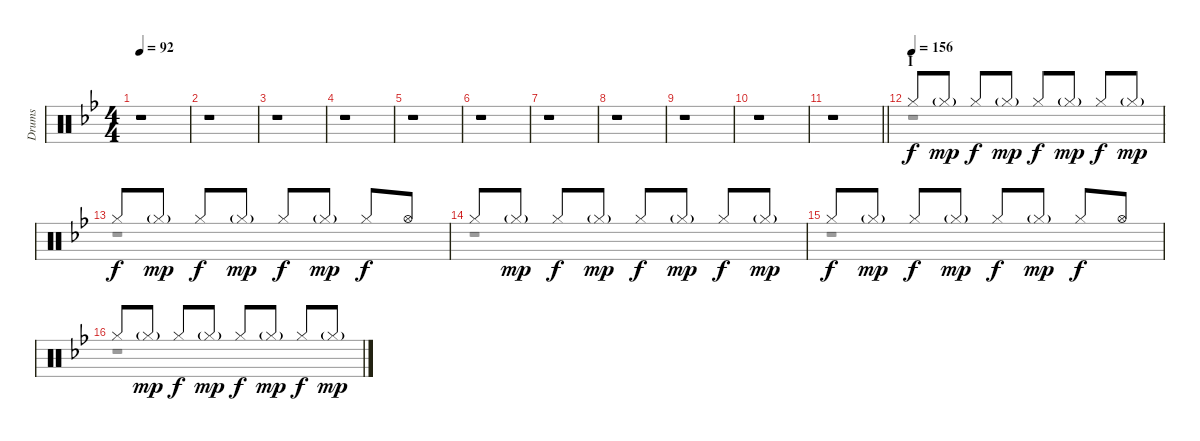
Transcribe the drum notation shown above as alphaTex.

\track ("Drums" "Drums") {instrument percussion}
\staff {score}
\articulation defaults
\voice
\ts (4 4)
\tempo 92
\clef neutral
\ks bb
r.1{dy f} |
r.1 |
r.1 |
r.1 |
r.1 |
r.1 |
r.1 |
r.1 |
r.1 |
r.1 |
\barLineRight lightlight
r.1 |
\section ("" "I")
\tempo (156)
"Hi-Hat (closed)".8 "Hi-Hat (closed)"{g}.8{dy mp} "Hi-Hat (closed)".8{dy f} "Hi-Hat (closed)"{g}.8{dy mp} "Hi-Hat (closed)".8{dy f} "Hi-Hat (closed)"{g}.8{dy mp} "Hi-Hat (closed)".8{dy f} "Hi-Hat (closed)"{g}.8{dy mp} |
"Hi-Hat (closed)".8{dy f} "Hi-Hat (closed)"{g}.8{dy mp} "Hi-Hat (closed)".8{dy f} "Hi-Hat (closed)"{g}.8{dy mp} "Hi-Hat (closed)".8{dy f} "Hi-Hat (closed)"{g}.8{dy mp} "Hi-Hat (closed)".8{dy f} "Hi-Hat (open)".8 |
"Hi-Hat (closed)".8 "Hi-Hat (closed)"{g}.8{dy mp} "Hi-Hat (closed)".8{dy f} "Hi-Hat (closed)"{g}.8{dy mp} "Hi-Hat (closed)".8{dy f} "Hi-Hat (closed)"{g}.8{dy mp} "Hi-Hat (closed)".8{dy f} "Hi-Hat (closed)"{g}.8{dy mp} |
"Hi-Hat (closed)".8{dy f} "Hi-Hat (closed)"{g}.8{dy mp} "Hi-Hat (closed)".8{dy f} "Hi-Hat (closed)"{g}.8{dy mp} "Hi-Hat (closed)".8{dy f} "Hi-Hat (closed)"{g}.8{dy mp} "Hi-Hat (closed)".8{dy f} "Hi-Hat (open)".8 |
"Hi-Hat (closed)".8 "Hi-Hat (closed)"{g}.8{dy mp} "Hi-Hat (closed)".8{dy f} "Hi-Hat (closed)"{g}.8{dy mp} "Hi-Hat (closed)".8{dy f} "Hi-Hat (closed)"{g}.8{dy mp} "Hi-Hat (closed)".8{dy f} "Hi-Hat (closed)"{g}.8{dy mp}
\voice
\clef neutral
\ottava regular
\simile none
\ks bb
r.1{dy fff} |
r.1 |
r.1 |
r.1 |
r.1 |
r.1 |
r.1 |
r.1 |
r.1 |
r.1 |
\barLineRight lightlight
r.1 |
r.1 |
r.1 |
r.1 |
r.1 |
r.1
